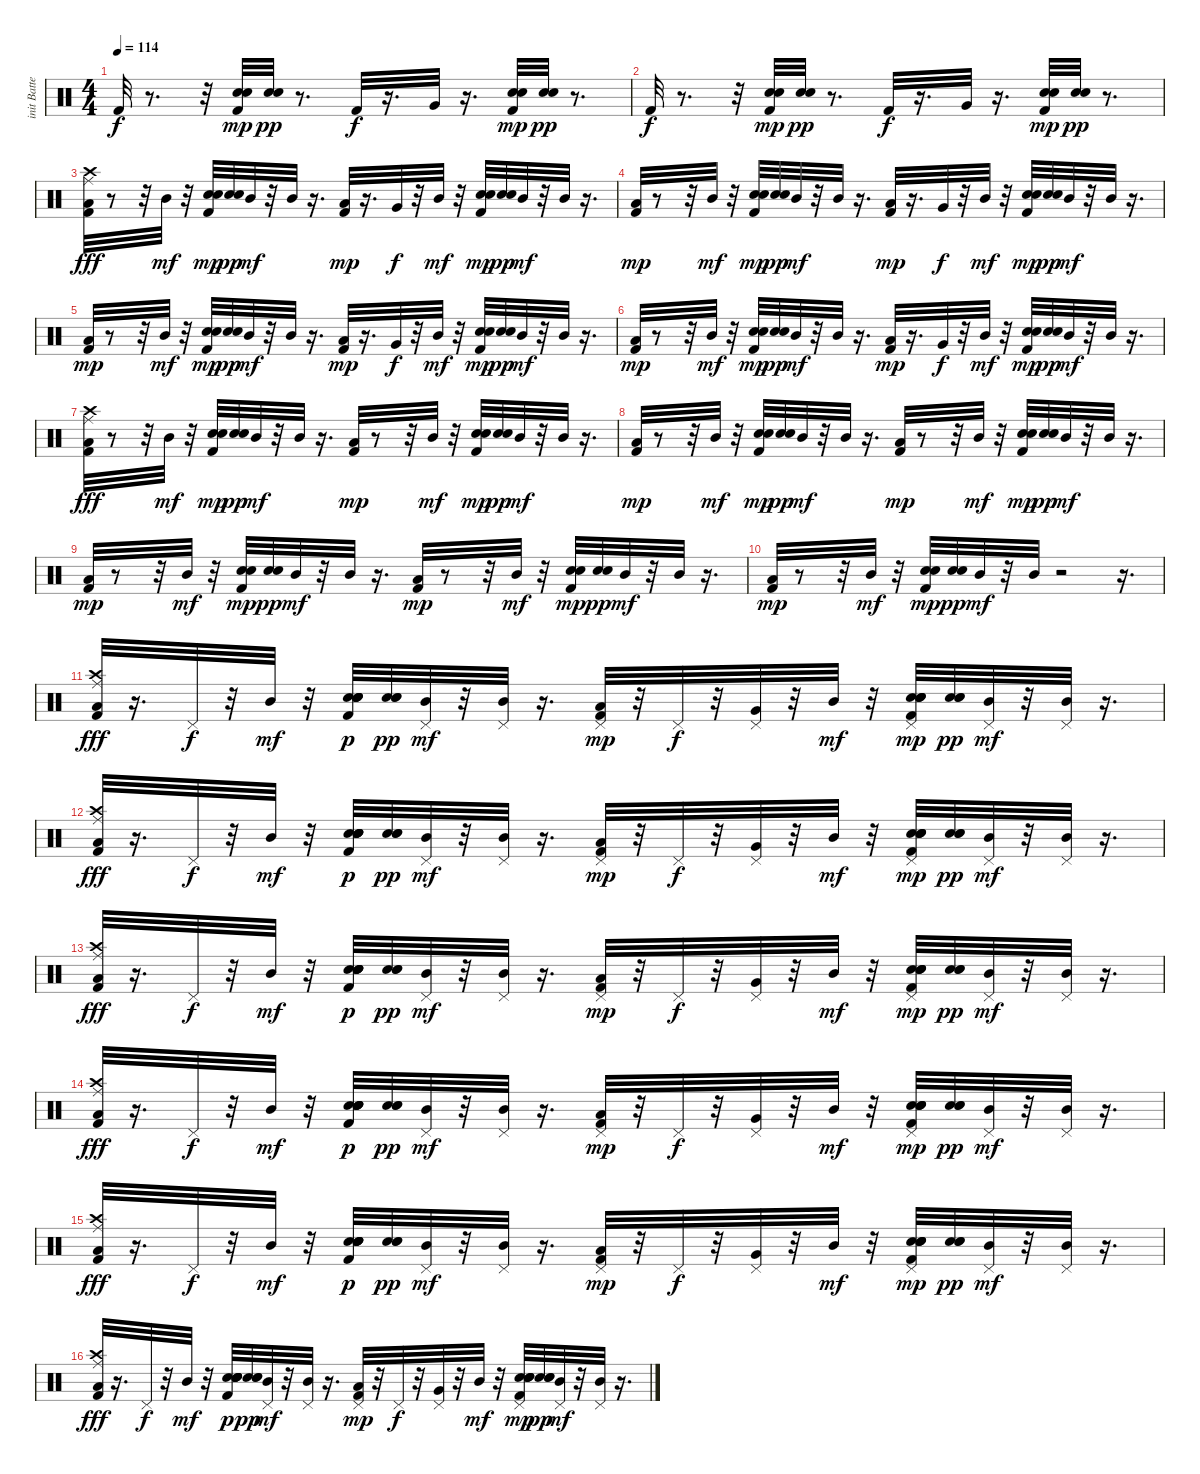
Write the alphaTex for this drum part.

\track ("init Batterie" "init Batte") {instrument percussion}
\staff {score}
\articulation defaults
\ts (4 4)
\tempo 114
\clef neutral
\ks c "Kick (hit) 2".32{dy f}
r.8{d} r.32 ("Hand Clap (hit)" "Kick (hit) 2" "Hand Clap (hit)").32{dy mp} ("Hand Clap (hit)" "Hand Clap (hit)").32{dy pp} r.8{d} "Kick (hit) 2".32{dy f} r.16{d} "Very Low Tom (hit)".32 r.16{d} ("Hand Clap (hit)" "Kick (hit) 2" "Hand Clap (hit)").32{dy mp} ("Hand Clap (hit)" "Hand Clap (hit)").32{dy pp} r.8{d} |
"Kick (hit) 2".32{dy f} r.8{d} r.32 ("Hand Clap (hit)" "Kick (hit) 2" "Hand Clap (hit)").32{dy mp} ("Hand Clap (hit)" "Hand Clap (hit)").32{dy pp} r.8{d} "Kick (hit) 2".32{dy f} r.16{d} "Very Low Tom (hit)".32 r.16{d} ("Hand Clap (hit)" "Kick (hit) 2" "Hand Clap (hit)").32{dy mp} ("Hand Clap (hit)" "Hand Clap (hit)").32{dy pp} r.8{d} |
("Kick (hit) 2" "Low Tom (hit)" "Crash high (hit)" "Ride (middle)").32{dy fff} r.8 r.32 "Mid Tom (hit)".32{dy mf} r.32 ("Hand Clap (hit)" "Kick (hit) 2" "Hand Clap (hit)").32{dy mp} ("Hand Clap (hit)" "Hand Clap (hit)").32{dy pp} "Mid Tom (hit)".32{dy mf} r.32 "Mid Tom (hit)".32 r.16{d} ("Kick (hit) 2" "Low Tom (hit)").32{dy mp} r.16{d} "Very Low Tom (hit)".32{dy f} r.32 "Mid Tom (hit)".32{dy mf} r.32 ("Hand Clap (hit)" "Kick (hit) 2" "Hand Clap (hit)").32{dy mp} ("Hand Clap (hit)" "Hand Clap (hit)").32{dy pp} "Mid Tom (hit)".32{dy mf} r.32 "Mid Tom (hit)".32 r.16{d} |
("Kick (hit) 2" "Low Tom (hit)").32{dy mp} r.8 r.32 "Mid Tom (hit)".32{dy mf} r.32 ("Hand Clap (hit)" "Kick (hit) 2" "Hand Clap (hit)").32{dy mp} ("Hand Clap (hit)" "Hand Clap (hit)").32{dy pp} "Mid Tom (hit)".32{dy mf} r.32 "Mid Tom (hit)".32 r.16{d} ("Kick (hit) 2" "Low Tom (hit)").32{dy mp} r.16{d} "Very Low Tom (hit)".32{dy f} r.32 "Mid Tom (hit)".32{dy mf} r.32 ("Hand Clap (hit)" "Kick (hit) 2" "Hand Clap (hit)").32{dy mp} ("Hand Clap (hit)" "Hand Clap (hit)").32{dy pp} "Mid Tom (hit)".32{dy mf} r.32 "Mid Tom (hit)".32 r.16{d} |
("Kick (hit) 2" "Low Tom (hit)").32{dy mp} r.8 r.32 "Mid Tom (hit)".32{dy mf} r.32 ("Hand Clap (hit)" "Kick (hit) 2" "Hand Clap (hit)").32{dy mp} ("Hand Clap (hit)" "Hand Clap (hit)").32{dy pp} "Mid Tom (hit)".32{dy mf} r.32 "Mid Tom (hit)".32 r.16{d} ("Kick (hit) 2" "Low Tom (hit)").32{dy mp} r.16{d} "Very Low Tom (hit)".32{dy f} r.32 "Mid Tom (hit)".32{dy mf} r.32 ("Hand Clap (hit)" "Kick (hit) 2" "Hand Clap (hit)").32{dy mp} ("Hand Clap (hit)" "Hand Clap (hit)").32{dy pp} "Mid Tom (hit)".32{dy mf} r.32 "Mid Tom (hit)".32 r.16{d} |
("Kick (hit) 2" "Low Tom (hit)").32{dy mp} r.8 r.32 "Mid Tom (hit)".32{dy mf} r.32 ("Hand Clap (hit)" "Kick (hit) 2" "Hand Clap (hit)").32{dy mp} ("Hand Clap (hit)" "Hand Clap (hit)").32{dy pp} "Mid Tom (hit)".32{dy mf} r.32 "Mid Tom (hit)".32 r.16{d} ("Kick (hit) 2" "Low Tom (hit)").32{dy mp} r.16{d} "Very Low Tom (hit)".32{dy f} r.32 "Mid Tom (hit)".32{dy mf} r.32 ("Hand Clap (hit)" "Kick (hit) 2" "Hand Clap (hit)").32{dy mp} ("Hand Clap (hit)" "Hand Clap (hit)").32{dy pp} "Mid Tom (hit)".32{dy mf} r.32 "Mid Tom (hit)".32 r.16{d} |
("Kick (hit) 2" "Low Tom (hit)" "Crash high (hit)" "Ride (middle)").32{dy fff} r.8 r.32 "Mid Tom (hit)".32{dy mf} r.32 ("Hand Clap (hit)" "Kick (hit) 2" "Hand Clap (hit)").32{dy mp} ("Hand Clap (hit)" "Hand Clap (hit)").32{dy pp} "Mid Tom (hit)".32{dy mf} r.32 "Mid Tom (hit)".32 r.16{d} ("Kick (hit) 2" "Low Tom (hit)").32{dy mp} r.8 r.32 "Mid Tom (hit)".32{dy mf} r.32 ("Hand Clap (hit)" "Kick (hit) 2" "Hand Clap (hit)").32{dy mp} ("Hand Clap (hit)" "Hand Clap (hit)").32{dy pp} "Mid Tom (hit)".32{dy mf} r.32 "Mid Tom (hit)".32 r.16{d} |
("Kick (hit) 2" "Low Tom (hit)").32{dy mp} r.8 r.32 "Mid Tom (hit)".32{dy mf} r.32 ("Hand Clap (hit)" "Kick (hit) 2" "Hand Clap (hit)").32{dy mp} ("Hand Clap (hit)" "Hand Clap (hit)").32{dy pp} "Mid Tom (hit)".32{dy mf} r.32 "Mid Tom (hit)".32 r.16{d} ("Kick (hit) 2" "Low Tom (hit)").32{dy mp} r.8 r.32 "Mid Tom (hit)".32{dy mf} r.32 ("Hand Clap (hit)" "Kick (hit) 2" "Hand Clap (hit)").32{dy mp} ("Hand Clap (hit)" "Hand Clap (hit)").32{dy pp} "Mid Tom (hit)".32{dy mf} r.32 "Mid Tom (hit)".32 r.16{d} |
("Kick (hit) 2" "Low Tom (hit)").32{dy mp} r.8 r.32 "Mid Tom (hit)".32{dy mf} r.32 ("Hand Clap (hit)" "Kick (hit) 2" "Hand Clap (hit)").32{dy mp} ("Hand Clap (hit)" "Hand Clap (hit)").32{dy pp} "Mid Tom (hit)".32{dy mf} r.32 "Mid Tom (hit)".32 r.16{d} ("Kick (hit) 2" "Low Tom (hit)").32{dy mp} r.8 r.32 "Mid Tom (hit)".32{dy mf} r.32 ("Hand Clap (hit)" "Kick (hit) 2" "Hand Clap (hit)").32{dy mp} ("Hand Clap (hit)" "Hand Clap (hit)").32{dy pp} "Mid Tom (hit)".32{dy mf} r.32 "Mid Tom (hit)".32 r.16{d} |
("Kick (hit) 2" "Low Tom (hit)").32{dy mp} r.8 r.32 "Mid Tom (hit)".32{dy mf} r.32 ("Hand Clap (hit)" "Kick (hit) 2" "Hand Clap (hit)").32{dy mp} ("Hand Clap (hit)" "Hand Clap (hit)").32{dy pp} "Mid Tom (hit)".32{dy mf} r.32 "Mid Tom (hit)".32 r.2 r.16{d} |
("Kick (hit) 2" "Low Tom (hit)" "Crash high (hit)" "Ride (middle)").32{dy fff} r.16{d} "Pedal Hi-Hat (hit)".32{dy f} r.32 "Mid Tom (hit)".32{dy mf} r.32 ("Snare (hit) 2" "Hand Clap (hit)" "Kick (hit) 2" "Snare (hit) 2" "Hand Clap (hit)" "Snare (hit) 2").32{dy p} ("Snare (hit) 2" "Hand Clap (hit)" "Hand Clap (hit)").32{dy pp} ("Pedal Hi-Hat (hit)" "Mid Tom (hit)").32{dy mf} r.32 ("Pedal Hi-Hat (hit)" "Mid Tom (hit)").32 r.16{d} ("Kick (hit) 2" "Pedal Hi-Hat (hit)" "Low Tom (hit)").32{dy mp} r.32 "Pedal Hi-Hat (hit)".32{dy f} r.32 ("Very Low Tom (hit)" "Pedal Hi-Hat (hit)").32 r.32 "Mid Tom (hit)".32{dy mf} r.32 ("Snare (hit) 2" "Hand Clap (hit)" "Kick (hit) 2" "Snare (hit) 2" "Hand Clap (hit)" "Pedal Hi-Hat (hit)").32{dy mp} ("Snare (hit) 2" "Hand Clap (hit)" "Hand Clap (hit)").32{dy pp} ("Pedal Hi-Hat (hit)" "Mid Tom (hit)").32{dy mf} r.32 ("Pedal Hi-Hat (hit)" "Mid Tom (hit)").32 r.16{d} |
("Kick (hit) 2" "Low Tom (hit)" "Crash high (hit)" "Ride (middle)").32{dy fff} r.16{d} "Pedal Hi-Hat (hit)".32{dy f} r.32 "Mid Tom (hit)".32{dy mf} r.32 ("Snare (hit) 2" "Hand Clap (hit)" "Kick (hit) 2" "Snare (hit) 2" "Hand Clap (hit)" "Snare (hit) 2").32{dy p} ("Snare (hit) 2" "Hand Clap (hit)" "Hand Clap (hit)").32{dy pp} ("Pedal Hi-Hat (hit)" "Mid Tom (hit)").32{dy mf} r.32 ("Pedal Hi-Hat (hit)" "Mid Tom (hit)").32 r.16{d} ("Kick (hit) 2" "Pedal Hi-Hat (hit)" "Low Tom (hit)").32{dy mp} r.32 "Pedal Hi-Hat (hit)".32{dy f} r.32 ("Very Low Tom (hit)" "Pedal Hi-Hat (hit)").32 r.32 "Mid Tom (hit)".32{dy mf} r.32 ("Snare (hit) 2" "Hand Clap (hit)" "Kick (hit) 2" "Snare (hit) 2" "Hand Clap (hit)" "Pedal Hi-Hat (hit)").32{dy mp} ("Snare (hit) 2" "Hand Clap (hit)" "Hand Clap (hit)").32{dy pp} ("Pedal Hi-Hat (hit)" "Mid Tom (hit)").32{dy mf} r.32 ("Pedal Hi-Hat (hit)" "Mid Tom (hit)").32 r.16{d} |
("Kick (hit) 2" "Low Tom (hit)" "Crash high (hit)" "Ride (middle)").32{dy fff} r.16{d} "Pedal Hi-Hat (hit)".32{dy f} r.32 "Mid Tom (hit)".32{dy mf} r.32 ("Snare (hit) 2" "Hand Clap (hit)" "Kick (hit) 2" "Snare (hit) 2" "Hand Clap (hit)" "Snare (hit) 2").32{dy p} ("Snare (hit) 2" "Hand Clap (hit)" "Hand Clap (hit)").32{dy pp} ("Pedal Hi-Hat (hit)" "Mid Tom (hit)").32{dy mf} r.32 ("Pedal Hi-Hat (hit)" "Mid Tom (hit)").32 r.16{d} ("Kick (hit) 2" "Pedal Hi-Hat (hit)" "Low Tom (hit)").32{dy mp} r.32 "Pedal Hi-Hat (hit)".32{dy f} r.32 ("Very Low Tom (hit)" "Pedal Hi-Hat (hit)").32 r.32 "Mid Tom (hit)".32{dy mf} r.32 ("Snare (hit) 2" "Hand Clap (hit)" "Kick (hit) 2" "Snare (hit) 2" "Hand Clap (hit)" "Pedal Hi-Hat (hit)").32{dy mp} ("Snare (hit) 2" "Hand Clap (hit)" "Hand Clap (hit)").32{dy pp} ("Pedal Hi-Hat (hit)" "Mid Tom (hit)").32{dy mf} r.32 ("Pedal Hi-Hat (hit)" "Mid Tom (hit)").32 r.16{d} |
("Kick (hit) 2" "Low Tom (hit)" "Crash high (hit)" "Ride (middle)").32{dy fff} r.16{d} "Pedal Hi-Hat (hit)".32{dy f} r.32 "Mid Tom (hit)".32{dy mf} r.32 ("Snare (hit) 2" "Hand Clap (hit)" "Kick (hit) 2" "Snare (hit) 2" "Hand Clap (hit)" "Snare (hit) 2").32{dy p} ("Snare (hit) 2" "Hand Clap (hit)" "Hand Clap (hit)").32{dy pp} ("Pedal Hi-Hat (hit)" "Mid Tom (hit)").32{dy mf} r.32 ("Pedal Hi-Hat (hit)" "Mid Tom (hit)").32 r.16{d} ("Kick (hit) 2" "Pedal Hi-Hat (hit)" "Low Tom (hit)").32{dy mp} r.32 "Pedal Hi-Hat (hit)".32{dy f} r.32 ("Very Low Tom (hit)" "Pedal Hi-Hat (hit)").32 r.32 "Mid Tom (hit)".32{dy mf} r.32 ("Snare (hit) 2" "Hand Clap (hit)" "Kick (hit) 2" "Snare (hit) 2" "Hand Clap (hit)" "Pedal Hi-Hat (hit)").32{dy mp} ("Snare (hit) 2" "Hand Clap (hit)" "Hand Clap (hit)").32{dy pp} ("Pedal Hi-Hat (hit)" "Mid Tom (hit)").32{dy mf} r.32 ("Pedal Hi-Hat (hit)" "Mid Tom (hit)").32 r.16{d} |
("Kick (hit) 2" "Low Tom (hit)" "Crash high (hit)" "Ride (middle)").32{dy fff} r.16{d} "Pedal Hi-Hat (hit)".32{dy f} r.32 "Mid Tom (hit)".32{dy mf} r.32 ("Snare (hit) 2" "Hand Clap (hit)" "Kick (hit) 2" "Snare (hit) 2" "Hand Clap (hit)" "Snare (hit) 2").32{dy p} ("Snare (hit) 2" "Hand Clap (hit)" "Hand Clap (hit)").32{dy pp} ("Pedal Hi-Hat (hit)" "Mid Tom (hit)").32{dy mf} r.32 ("Pedal Hi-Hat (hit)" "Mid Tom (hit)").32 r.16{d} ("Kick (hit) 2" "Pedal Hi-Hat (hit)" "Low Tom (hit)").32{dy mp} r.32 "Pedal Hi-Hat (hit)".32{dy f} r.32 ("Very Low Tom (hit)" "Pedal Hi-Hat (hit)").32 r.32 "Mid Tom (hit)".32{dy mf} r.32 ("Snare (hit) 2" "Hand Clap (hit)" "Kick (hit) 2" "Snare (hit) 2" "Hand Clap (hit)" "Pedal Hi-Hat (hit)").32{dy mp} ("Snare (hit) 2" "Hand Clap (hit)" "Hand Clap (hit)").32{dy pp} ("Pedal Hi-Hat (hit)" "Mid Tom (hit)").32{dy mf} r.32 ("Pedal Hi-Hat (hit)" "Mid Tom (hit)").32 r.16{d} |
("Kick (hit) 2" "Low Tom (hit)" "Crash high (hit)" "Ride (middle)").32{dy fff} r.16{d} "Pedal Hi-Hat (hit)".32{dy f} r.32 "Mid Tom (hit)".32{dy mf} r.32 ("Snare (hit) 2" "Hand Clap (hit)" "Kick (hit) 2" "Snare (hit) 2" "Hand Clap (hit)" "Snare (hit) 2").32{dy p} ("Snare (hit) 2" "Hand Clap (hit)" "Hand Clap (hit)").32{dy pp} ("Pedal Hi-Hat (hit)" "Mid Tom (hit)").32{dy mf} r.32 ("Pedal Hi-Hat (hit)" "Mid Tom (hit)").32 r.16{d} ("Kick (hit) 2" "Pedal Hi-Hat (hit)" "Low Tom (hit)").32{dy mp} r.32 "Pedal Hi-Hat (hit)".32{dy f} r.32 ("Very Low Tom (hit)" "Pedal Hi-Hat (hit)").32 r.32 "Mid Tom (hit)".32{dy mf} r.32 ("Snare (hit) 2" "Hand Clap (hit)" "Kick (hit) 2" "Snare (hit) 2" "Hand Clap (hit)" "Pedal Hi-Hat (hit)").32{dy mp} ("Snare (hit) 2" "Hand Clap (hit)" "Hand Clap (hit)").32{dy pp} ("Pedal Hi-Hat (hit)" "Mid Tom (hit)").32{dy mf} r.32 ("Pedal Hi-Hat (hit)" "Mid Tom (hit)").32 r.16{d}
